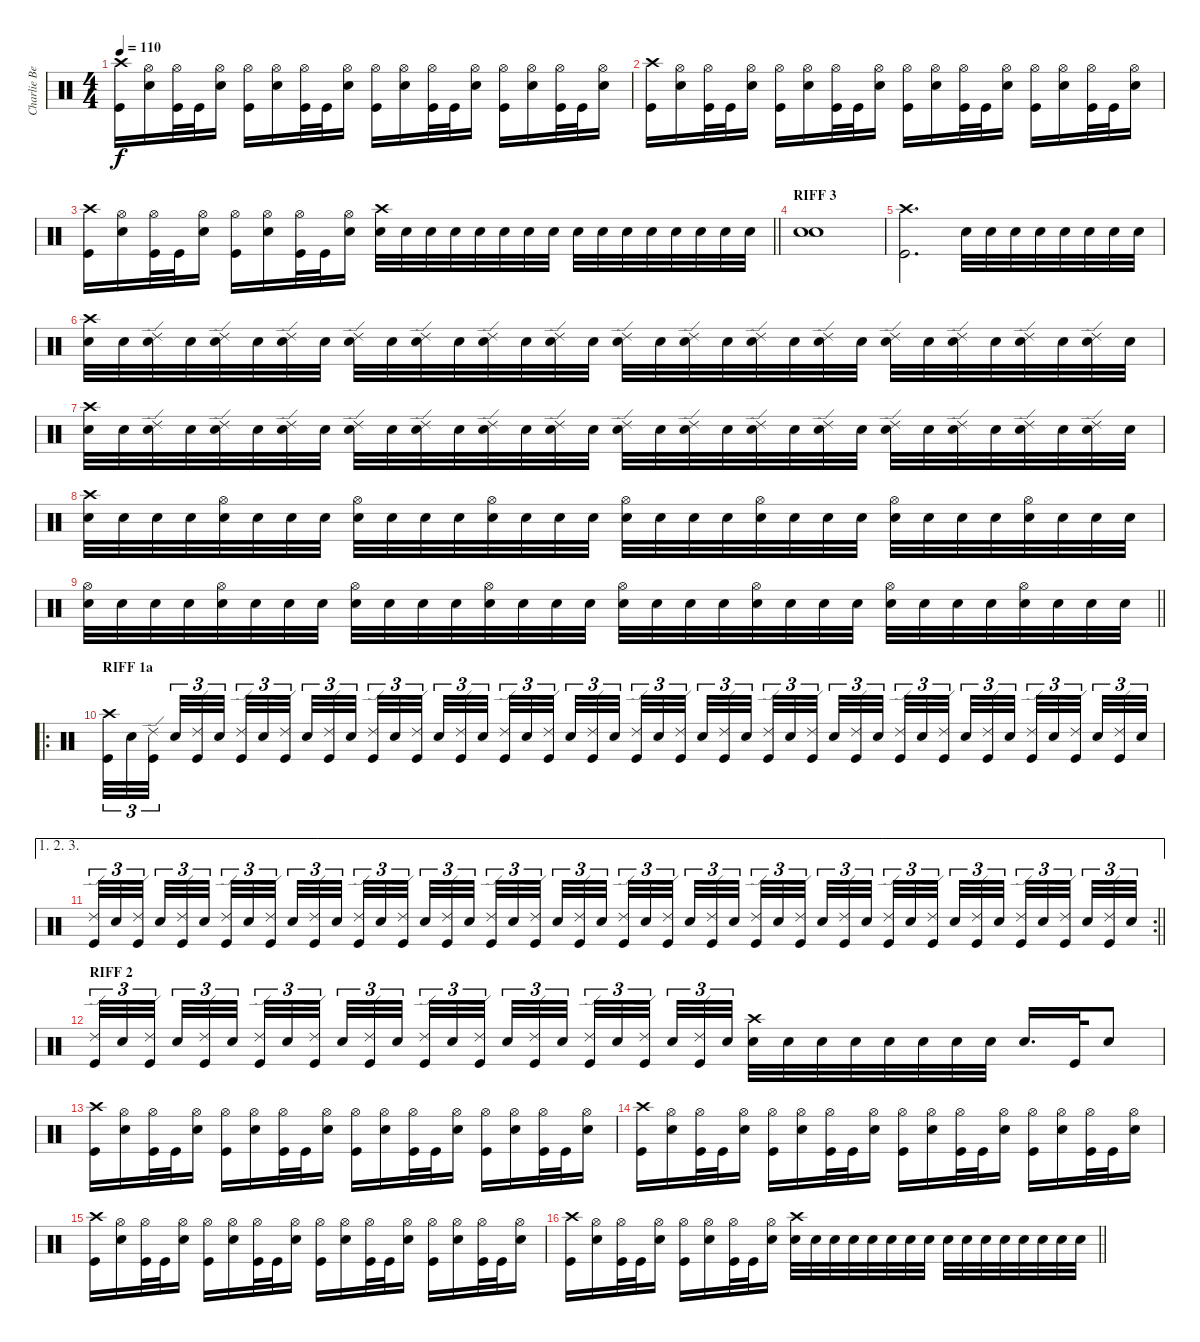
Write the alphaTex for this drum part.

\track ("Charlie Benante" "Charlie Be") {instrument percussion}
\staff {score}
\articulation defaults
\ts (4 4)
\tempo 110
\clef neutral
\ks c
("Crash high (hit)" "Kick (hit)").16{dy f} ("Hi-Hat (open)" "Snare (hit) 2").16 ("Hi-Hat (open)" "Kick (hit)").32 "Kick (hit)".32 ("Hi-Hat (open)" "Snare (hit) 2").16 ("Hi-Hat (open)" "Kick (hit)").16 ("Hi-Hat (open)" "Snare (hit) 2").16 ("Hi-Hat (open)" "Kick (hit)").32 "Kick (hit)".32 ("Hi-Hat (open)" "Snare (hit) 2").16 ("Hi-Hat (open)" "Kick (hit)").16 ("Hi-Hat (open)" "Snare (hit) 2").16 ("Hi-Hat (open)" "Kick (hit)").32 "Kick (hit)".32 ("Hi-Hat (open)" "Snare (hit) 2").16 ("Hi-Hat (open)" "Kick (hit)").16 ("Hi-Hat (open)" "Snare (hit) 2").16 ("Hi-Hat (open)" "Kick (hit)").32 "Kick (hit)".32 ("Hi-Hat (open)" "Snare (hit) 2").16 |
("Crash high (hit)" "Kick (hit)").16 ("Hi-Hat (open)" "Snare (hit) 2").16 ("Hi-Hat (open)" "Kick (hit)").32 "Kick (hit)".32 ("Hi-Hat (open)" "Snare (hit) 2").16 ("Hi-Hat (open)" "Kick (hit)").16 ("Hi-Hat (open)" "Snare (hit) 2").16 ("Hi-Hat (open)" "Kick (hit)").32 "Kick (hit)".32 ("Hi-Hat (open)" "Snare (hit) 2").16 ("Hi-Hat (open)" "Kick (hit)").16 ("Hi-Hat (open)" "Snare (hit) 2").16 ("Hi-Hat (open)" "Kick (hit)").32 "Kick (hit)".32 ("Hi-Hat (open)" "Snare (hit) 2").16 ("Hi-Hat (open)" "Kick (hit)").16 ("Hi-Hat (open)" "Snare (hit) 2").16 ("Hi-Hat (open)" "Kick (hit)").32 "Kick (hit)".32 ("Hi-Hat (open)" "Snare (hit) 2").16 |
\barLineRight lightlight
("Crash high (hit)" "Kick (hit)").16 ("Hi-Hat (open)" "Snare (hit) 2").16 ("Hi-Hat (open)" "Kick (hit)").32 "Kick (hit)".32 ("Hi-Hat (open)" "Snare (hit) 2").16 ("Hi-Hat (open)" "Kick (hit)").16 ("Hi-Hat (open)" "Snare (hit) 2").16 ("Hi-Hat (open)" "Kick (hit)").32 "Kick (hit)".32 ("Hi-Hat (open)" "Snare (hit) 2").16 ("Crash high (hit)" "Snare (hit) 2").32 "Snare (hit) 2".32 "Snare (hit) 2".32 "Snare (hit) 2".32 "Snare (hit) 2".32 "Snare (hit) 2".32 "Snare (hit) 2".32 "Snare (hit) 2".32 "Snare (hit) 2".32 "Snare (hit) 2".32 "Snare (hit) 2".32 "Snare (hit) 2".32 "Snare (hit) 2".32 "Snare (hit) 2".32 "Snare (hit) 2".32 "Snare (hit) 2".32 |
\section ("" "RIFF 3")
("Snare (hit) 2" "Snare (hit) 2").1 |
("Crash high (hit)" "Kick (hit)").2{d} "Snare (hit) 2".32 "Snare (hit) 2".32 "Snare (hit) 2".32 "Snare (hit) 2".32 "Snare (hit) 2".32 "Snare (hit) 2".32 "Snare (hit) 2".32 "Snare (hit) 2".32 |
("Crash high (hit)" "Snare (hit) 2").32 "Snare (hit) 2".32 ("Ride (edge) 2" "Snare (hit) 2").32 "Snare (hit) 2".32 ("Ride (edge) 2" "Snare (hit) 2").32 "Snare (hit) 2".32 ("Ride (edge) 2" "Snare (hit) 2").32 "Snare (hit) 2".32 ("Ride (edge) 2" "Snare (hit) 2").32 "Snare (hit) 2".32 ("Ride (edge) 2" "Snare (hit) 2").32 "Snare (hit) 2".32 ("Ride (edge) 2" "Snare (hit) 2").32 "Snare (hit) 2".32 ("Ride (edge) 2" "Snare (hit) 2").32 "Snare (hit) 2".32 ("Ride (edge) 2" "Snare (hit) 2").32 "Snare (hit) 2".32 ("Ride (edge) 2" "Snare (hit) 2").32 "Snare (hit) 2".32 ("Ride (edge) 2" "Snare (hit) 2").32 "Snare (hit) 2".32 ("Ride (edge) 2" "Snare (hit) 2").32 "Snare (hit) 2".32 ("Ride (edge) 2" "Snare (hit) 2").32 "Snare (hit) 2".32 ("Ride (edge) 2" "Snare (hit) 2").32 "Snare (hit) 2".32 ("Ride (edge) 2" "Snare (hit) 2").32 "Snare (hit) 2".32 ("Ride (edge) 2" "Snare (hit) 2").32 "Snare (hit) 2".32 |
("Crash high (hit)" "Snare (hit) 2").32 "Snare (hit) 2".32 ("Ride (edge) 2" "Snare (hit) 2").32 "Snare (hit) 2".32 ("Ride (edge) 2" "Snare (hit) 2").32 "Snare (hit) 2".32 ("Ride (edge) 2" "Snare (hit) 2").32 "Snare (hit) 2".32 ("Ride (edge) 2" "Snare (hit) 2").32 "Snare (hit) 2".32 ("Ride (edge) 2" "Snare (hit) 2").32 "Snare (hit) 2".32 ("Ride (edge) 2" "Snare (hit) 2").32 "Snare (hit) 2".32 ("Ride (edge) 2" "Snare (hit) 2").32 "Snare (hit) 2".32 ("Ride (edge) 2" "Snare (hit) 2").32 "Snare (hit) 2".32 ("Ride (edge) 2" "Snare (hit) 2").32 "Snare (hit) 2".32 ("Ride (edge) 2" "Snare (hit) 2").32 "Snare (hit) 2".32 ("Ride (edge) 2" "Snare (hit) 2").32 "Snare (hit) 2".32 ("Ride (edge) 2" "Snare (hit) 2").32 "Snare (hit) 2".32 ("Ride (edge) 2" "Snare (hit) 2").32 "Snare (hit) 2".32 ("Ride (edge) 2" "Snare (hit) 2").32 "Snare (hit) 2".32 ("Ride (edge) 2" "Snare (hit) 2").32 "Snare (hit) 2".32 |
("Crash high (hit)" "Snare (hit) 2").32 "Snare (hit) 2".32 "Snare (hit) 2".32 "Snare (hit) 2".32 ("Hi-Hat (open)" "Snare (hit) 2").32 "Snare (hit) 2".32 "Snare (hit) 2".32 "Snare (hit) 2".32 ("Hi-Hat (open)" "Snare (hit) 2").32 "Snare (hit) 2".32 "Snare (hit) 2".32 "Snare (hit) 2".32 ("Hi-Hat (open)" "Snare (hit) 2").32 "Snare (hit) 2".32 "Snare (hit) 2".32 "Snare (hit) 2".32 ("Hi-Hat (open)" "Snare (hit) 2").32 "Snare (hit) 2".32 "Snare (hit) 2".32 "Snare (hit) 2".32 ("Hi-Hat (open)" "Snare (hit) 2").32 "Snare (hit) 2".32 "Snare (hit) 2".32 "Snare (hit) 2".32 ("Hi-Hat (open)" "Snare (hit) 2").32 "Snare (hit) 2".32 "Snare (hit) 2".32 "Snare (hit) 2".32 ("Hi-Hat (open)" "Snare (hit) 2").32 "Snare (hit) 2".32 "Snare (hit) 2".32 "Snare (hit) 2".32 |
\barLineRight lightlight
("Hi-Hat (open)" "Snare (hit) 2").32 "Snare (hit) 2".32 "Snare (hit) 2".32 "Snare (hit) 2".32 ("Hi-Hat (open)" "Snare (hit) 2").32 "Snare (hit) 2".32 "Snare (hit) 2".32 "Snare (hit) 2".32 ("Hi-Hat (open)" "Snare (hit) 2").32 "Snare (hit) 2".32 "Snare (hit) 2".32 "Snare (hit) 2".32 ("Hi-Hat (open)" "Snare (hit) 2").32 "Snare (hit) 2".32 "Snare (hit) 2".32 "Snare (hit) 2".32 ("Hi-Hat (open)" "Snare (hit) 2").32 "Snare (hit) 2".32 "Snare (hit) 2".32 "Snare (hit) 2".32 ("Hi-Hat (open)" "Snare (hit) 2").32 "Snare (hit) 2".32 "Snare (hit) 2".32 "Snare (hit) 2".32 ("Hi-Hat (open)" "Snare (hit) 2").32 "Snare (hit) 2".32 "Snare (hit) 2".32 "Snare (hit) 2".32 ("Hi-Hat (open)" "Snare (hit) 2").32 "Snare (hit) 2".32 "Snare (hit) 2".32 "Snare (hit) 2".32 |
\ro
\section ("" "RIFF 1a")
("Crash high (hit)" "Kick (hit)").32{tu (3 2)} "Snare (hit) 2".32{tu (3 2)} ("Ride (edge) 2" "Kick (hit)").32{tu (3 2) beam splitsecondary} "Snare (hit) 2".32{tu (3 2)} ("Ride (edge) 2" "Kick (hit)").32{tu (3 2)} "Snare (hit) 2".32{tu (3 2) beam splitsecondary} ("Ride (edge) 2" "Kick (hit)").32{tu (3 2)} "Snare (hit) 2".32{tu (3 2)} ("Ride (edge) 2" "Kick (hit)").32{tu (3 2) beam splitsecondary} "Snare (hit) 2".32{tu (3 2)} ("Ride (edge) 2" "Kick (hit)").32{tu (3 2)} "Snare (hit) 2".32{tu (3 2)} ("Ride (edge) 2" "Kick (hit)").32{tu (3 2)} "Snare (hit) 2".32{tu (3 2)} ("Ride (edge) 2" "Kick (hit)").32{tu (3 2) beam splitsecondary} "Snare (hit) 2".32{tu (3 2)} ("Ride (edge) 2" "Kick (hit)").32{tu (3 2)} "Snare (hit) 2".32{tu (3 2) beam splitsecondary} ("Ride (edge) 2" "Kick (hit)").32{tu (3 2)} "Snare (hit) 2".32{tu (3 2)} ("Ride (edge) 2" "Kick (hit)").32{tu (3 2) beam splitsecondary} "Snare (hit) 2".32{tu (3 2)} ("Ride (edge) 2" "Kick (hit)").32{tu (3 2)} "Snare (hit) 2".32{tu (3 2)} ("Ride (edge) 2" "Kick (hit)").32{tu (3 2)} "Snare (hit) 2".32{tu (3 2)} ("Ride (edge) 2" "Kick (hit)").32{tu (3 2) beam splitsecondary} "Snare (hit) 2".32{tu (3 2)} ("Ride (edge) 2" "Kick (hit)").32{tu (3 2)} "Snare (hit) 2".32{tu (3 2) beam splitsecondary} ("Ride (edge) 2" "Kick (hit)").32{tu (3 2)} "Snare (hit) 2".32{tu (3 2)} ("Ride (edge) 2" "Kick (hit)").32{tu (3 2) beam splitsecondary} "Snare (hit) 2".32{tu (3 2)} ("Ride (edge) 2" "Kick (hit)").32{tu (3 2)} "Snare (hit) 2".32{tu (3 2)} ("Ride (edge) 2" "Kick (hit)").32{tu (3 2)} "Snare (hit) 2".32{tu (3 2)} ("Ride (edge) 2" "Kick (hit)").32{tu (3 2) beam splitsecondary} "Snare (hit) 2".32{tu (3 2)} ("Ride (edge) 2" "Kick (hit)").32{tu (3 2)} "Snare (hit) 2".32{tu (3 2) beam splitsecondary} ("Ride (edge) 2" "Kick (hit)").32{tu (3 2)} "Snare (hit) 2".32{tu (3 2)} ("Ride (edge) 2" "Kick (hit)").32{tu (3 2) beam splitsecondary} "Snare (hit) 2".32{tu (3 2)} ("Ride (edge) 2" "Kick (hit)").32{tu (3 2)} "Snare (hit) 2".32{tu (3 2)} |
\ae (1 2 3)
\rc 2
\barLineRight lightlight
("Ride (edge) 2" "Kick (hit)").32{tu (3 2)} "Snare (hit) 2".32{tu (3 2)} ("Ride (edge) 2" "Kick (hit)").32{tu (3 2) beam splitsecondary} "Snare (hit) 2".32{tu (3 2)} ("Ride (edge) 2" "Kick (hit)").32{tu (3 2)} "Snare (hit) 2".32{tu (3 2) beam splitsecondary} ("Ride (edge) 2" "Kick (hit)").32{tu (3 2)} "Snare (hit) 2".32{tu (3 2)} ("Ride (edge) 2" "Kick (hit)").32{tu (3 2) beam splitsecondary} "Snare (hit) 2".32{tu (3 2)} ("Ride (edge) 2" "Kick (hit)").32{tu (3 2)} "Snare (hit) 2".32{tu (3 2)} ("Ride (edge) 2" "Kick (hit)").32{tu (3 2)} "Snare (hit) 2".32{tu (3 2)} ("Ride (edge) 2" "Kick (hit)").32{tu (3 2) beam splitsecondary} "Snare (hit) 2".32{tu (3 2)} ("Ride (edge) 2" "Kick (hit)").32{tu (3 2)} "Snare (hit) 2".32{tu (3 2) beam splitsecondary} ("Ride (edge) 2" "Kick (hit)").32{tu (3 2)} "Snare (hit) 2".32{tu (3 2)} ("Ride (edge) 2" "Kick (hit)").32{tu (3 2) beam splitsecondary} "Snare (hit) 2".32{tu (3 2)} ("Ride (edge) 2" "Kick (hit)").32{tu (3 2)} "Snare (hit) 2".32{tu (3 2)} ("Ride (edge) 2" "Kick (hit)").32{tu (3 2)} "Snare (hit) 2".32{tu (3 2)} ("Ride (edge) 2" "Kick (hit)").32{tu (3 2) beam splitsecondary} "Snare (hit) 2".32{tu (3 2)} ("Ride (edge) 2" "Kick (hit)").32{tu (3 2)} "Snare (hit) 2".32{tu (3 2) beam splitsecondary} ("Ride (edge) 2" "Kick (hit)").32{tu (3 2)} "Snare (hit) 2".32{tu (3 2)} ("Ride (edge) 2" "Kick (hit)").32{tu (3 2) beam splitsecondary} "Snare (hit) 2".32{tu (3 2)} ("Ride (edge) 2" "Kick (hit)").32{tu (3 2)} "Snare (hit) 2".32{tu (3 2)} ("Ride (edge) 2" "Kick (hit)").32{tu (3 2)} "Snare (hit) 2".32{tu (3 2)} ("Ride (edge) 2" "Kick (hit)").32{tu (3 2) beam splitsecondary} "Snare (hit) 2".32{tu (3 2)} ("Ride (edge) 2" "Kick (hit)").32{tu (3 2)} "Snare (hit) 2".32{tu (3 2) beam splitsecondary} ("Ride (edge) 2" "Kick (hit)").32{tu (3 2)} "Snare (hit) 2".32{tu (3 2)} ("Ride (edge) 2" "Kick (hit)").32{tu (3 2) beam splitsecondary} "Snare (hit) 2".32{tu (3 2)} ("Ride (edge) 2" "Kick (hit)").32{tu (3 2)} "Snare (hit) 2".32{tu (3 2)} |
\section ("" "RIFF 2")
("Ride (edge) 2" "Kick (hit)").32{tu (3 2)} "Snare (hit) 2".32{tu (3 2)} ("Ride (edge) 2" "Kick (hit)").32{tu (3 2) beam splitsecondary} "Snare (hit) 2".32{tu (3 2)} ("Ride (edge) 2" "Kick (hit)").32{tu (3 2)} "Snare (hit) 2".32{tu (3 2) beam splitsecondary} ("Ride (edge) 2" "Kick (hit)").32{tu (3 2)} "Snare (hit) 2".32{tu (3 2)} ("Ride (edge) 2" "Kick (hit)").32{tu (3 2) beam splitsecondary} "Snare (hit) 2".32{tu (3 2)} ("Ride (edge) 2" "Kick (hit)").32{tu (3 2)} "Snare (hit) 2".32{tu (3 2)} ("Ride (edge) 2" "Kick (hit)").32{tu (3 2)} "Snare (hit) 2".32{tu (3 2)} ("Ride (edge) 2" "Kick (hit)").32{tu (3 2) beam splitsecondary} "Snare (hit) 2".32{tu (3 2)} ("Ride (edge) 2" "Kick (hit)").32{tu (3 2)} "Snare (hit) 2".32{tu (3 2) beam splitsecondary} ("Ride (edge) 2" "Kick (hit)").32{tu (3 2)} "Snare (hit) 2".32{tu (3 2)} ("Ride (edge) 2" "Kick (hit)").32{tu (3 2) beam splitsecondary} "Snare (hit) 2".32{tu (3 2)} ("Ride (edge) 2" "Kick (hit)").32{tu (3 2)} "Snare (hit) 2".32{tu (3 2)} ("Crash high (hit)" "Snare (hit) 2").32 "Snare (hit) 2".32 "Snare (hit) 2".32 "Snare (hit) 2".32 "Snare (hit) 2".32 "Snare (hit) 2".32 "Snare (hit) 2".32 "Snare (hit) 2".32 "Snare (hit) 2".16{d} "Kick (hit)".32 "Snare (hit) 2".8 |
("Crash high (hit)" "Kick (hit)").16 ("Hi-Hat (open)" "Snare (hit) 2").16 ("Hi-Hat (open)" "Kick (hit)").32 "Kick (hit)".32 ("Hi-Hat (open)" "Snare (hit) 2").16 ("Hi-Hat (open)" "Kick (hit)").16 ("Hi-Hat (open)" "Snare (hit) 2").16 ("Hi-Hat (open)" "Kick (hit)").32 "Kick (hit)".32 ("Hi-Hat (open)" "Snare (hit) 2").16 ("Hi-Hat (open)" "Kick (hit)").16 ("Hi-Hat (open)" "Snare (hit) 2").16 ("Hi-Hat (open)" "Kick (hit)").32 "Kick (hit)".32 ("Hi-Hat (open)" "Snare (hit) 2").16 ("Hi-Hat (open)" "Kick (hit)").16 ("Hi-Hat (open)" "Snare (hit) 2").16 ("Hi-Hat (open)" "Kick (hit)").32 "Kick (hit)".32 ("Hi-Hat (open)" "Snare (hit) 2").16 |
("Crash high (hit)" "Kick (hit)").16 ("Hi-Hat (open)" "Snare (hit) 2").16 ("Hi-Hat (open)" "Kick (hit)").32 "Kick (hit)".32 ("Hi-Hat (open)" "Snare (hit) 2").16 ("Hi-Hat (open)" "Kick (hit)").16 ("Hi-Hat (open)" "Snare (hit) 2").16 ("Hi-Hat (open)" "Kick (hit)").32 "Kick (hit)".32 ("Hi-Hat (open)" "Snare (hit) 2").16 ("Hi-Hat (open)" "Kick (hit)").16 ("Hi-Hat (open)" "Snare (hit) 2").16 ("Hi-Hat (open)" "Kick (hit)").32 "Kick (hit)".32 ("Hi-Hat (open)" "Snare (hit) 2").16 ("Hi-Hat (open)" "Kick (hit)").16 ("Hi-Hat (open)" "Snare (hit) 2").16 ("Hi-Hat (open)" "Kick (hit)").32 "Kick (hit)".32 ("Hi-Hat (open)" "Snare (hit) 2").16 |
("Crash high (hit)" "Kick (hit)").16 ("Hi-Hat (open)" "Snare (hit) 2").16 ("Hi-Hat (open)" "Kick (hit)").32 "Kick (hit)".32 ("Hi-Hat (open)" "Snare (hit) 2").16 ("Hi-Hat (open)" "Kick (hit)").16 ("Hi-Hat (open)" "Snare (hit) 2").16 ("Hi-Hat (open)" "Kick (hit)").32 "Kick (hit)".32 ("Hi-Hat (open)" "Snare (hit) 2").16 ("Hi-Hat (open)" "Kick (hit)").16 ("Hi-Hat (open)" "Snare (hit) 2").16 ("Hi-Hat (open)" "Kick (hit)").32 "Kick (hit)".32 ("Hi-Hat (open)" "Snare (hit) 2").16 ("Hi-Hat (open)" "Kick (hit)").16 ("Hi-Hat (open)" "Snare (hit) 2").16 ("Hi-Hat (open)" "Kick (hit)").32 "Kick (hit)".32 ("Hi-Hat (open)" "Snare (hit) 2").16 |
\barLineRight lightlight
("Crash high (hit)" "Kick (hit)").16 ("Hi-Hat (open)" "Snare (hit) 2").16 ("Hi-Hat (open)" "Kick (hit)").32 "Kick (hit)".32 ("Hi-Hat (open)" "Snare (hit) 2").16 ("Hi-Hat (open)" "Kick (hit)").16 ("Hi-Hat (open)" "Snare (hit) 2").16 ("Hi-Hat (open)" "Kick (hit)").32 "Kick (hit)".32 ("Hi-Hat (open)" "Snare (hit) 2").16 ("Crash high (hit)" "Snare (hit) 2").32 "Snare (hit) 2".32 "Snare (hit) 2".32 "Snare (hit) 2".32 "Snare (hit) 2".32 "Snare (hit) 2".32 "Snare (hit) 2".32 "Snare (hit) 2".32 "Snare (hit) 2".32 "Snare (hit) 2".32 "Snare (hit) 2".32 "Snare (hit) 2".32 "Snare (hit) 2".32 "Snare (hit) 2".32 "Snare (hit) 2".32 "Snare (hit) 2".32
